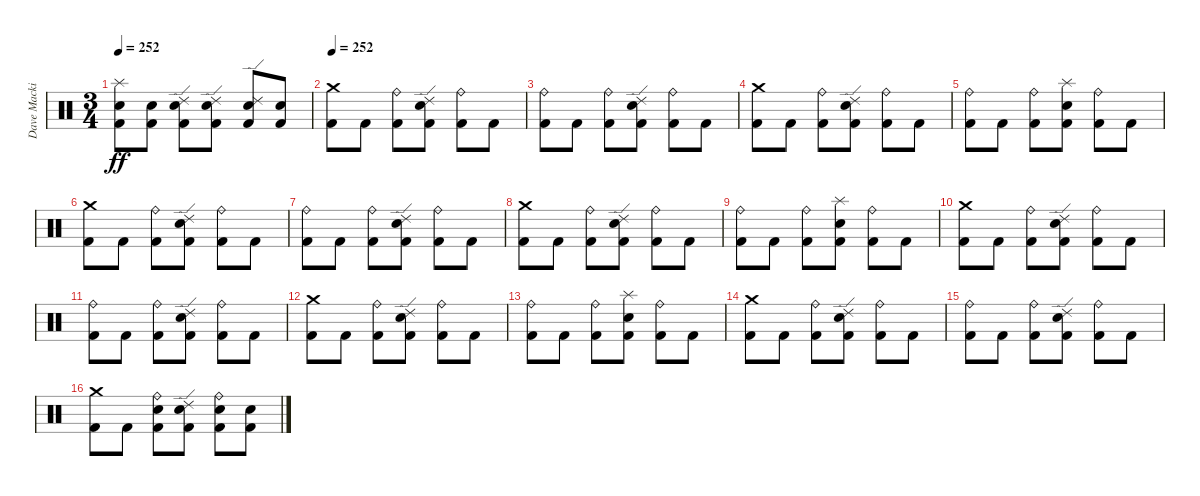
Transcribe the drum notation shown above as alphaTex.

\track ("Dave Mackintosh" "Dave Macki") {instrument percussion}
\staff {score}
\articulation defaults
\ts (3 4)
\tempo 252
\clef neutral
\ks c
("Splash (hit)" "Electric Snare (hit)" "Kick (hit) 2").8{dy ff} ("Electric Snare (hit)" "Kick (hit) 2").8 ("Ride (edge) 2" "Electric Snare (hit)" "Kick (hit) 2").8 ("Ride (edge) 2" "Electric Snare (hit)" "Kick (hit) 2").8 ("Ride (edge) 2" "Electric Snare (hit)" "Kick (hit) 2").8 ("Electric Snare (hit)" "Kick (hit) 2").8 |
\tempo 252
("Crash medium (hit)" "Kick (hit) 2").8 "Kick (hit) 2".8 ("Ride (bell)" "Kick (hit) 2").8 ("Ride (edge) 2" "Electric Snare (hit)" "Kick (hit) 2").8 ("Ride (bell)" "Kick (hit) 2").8 "Kick (hit) 2".8 |
("Ride (bell)" "Kick (hit) 2").8 "Kick (hit) 2".8 ("Ride (bell)" "Kick (hit) 2").8 ("Ride (edge) 2" "Electric Snare (hit)" "Kick (hit) 2").8 ("Ride (bell)" "Kick (hit) 2").8 "Kick (hit) 2".8 |
("Crash medium (hit)" "Kick (hit) 2").8 "Kick (hit) 2".8 ("Ride (bell)" "Kick (hit) 2").8 ("Ride (edge) 2" "Electric Snare (hit)" "Kick (hit) 2").8 ("Ride (bell)" "Kick (hit) 2").8 "Kick (hit) 2".8 |
("Ride (bell)" "Kick (hit) 2").8 "Kick (hit) 2".8 ("Ride (bell)" "Kick (hit) 2").8 ("Splash (hit)" "Electric Snare (hit)" "Kick (hit) 2").8 ("Ride (bell)" "Kick (hit) 2").8 "Kick (hit) 2".8 |
("Crash medium (hit)" "Kick (hit) 2").8 "Kick (hit) 2".8 ("Ride (bell)" "Kick (hit) 2").8 ("Ride (edge) 2" "Electric Snare (hit)" "Kick (hit) 2").8 ("Ride (bell)" "Kick (hit) 2").8 "Kick (hit) 2".8 |
("Ride (bell)" "Kick (hit) 2").8 "Kick (hit) 2".8 ("Ride (bell)" "Kick (hit) 2").8 ("Ride (edge) 2" "Electric Snare (hit)" "Kick (hit) 2").8 ("Ride (bell)" "Kick (hit) 2").8 "Kick (hit) 2".8 |
("Crash medium (hit)" "Kick (hit) 2").8 "Kick (hit) 2".8 ("Ride (bell)" "Kick (hit) 2").8 ("Ride (edge) 2" "Electric Snare (hit)" "Kick (hit) 2").8 ("Ride (bell)" "Kick (hit) 2").8 "Kick (hit) 2".8 |
("Ride (bell)" "Kick (hit) 2").8 "Kick (hit) 2".8 ("Ride (bell)" "Kick (hit) 2").8 ("Splash (hit)" "Electric Snare (hit)" "Kick (hit) 2").8 ("Ride (bell)" "Kick (hit) 2").8 "Kick (hit) 2".8 |
("Crash medium (hit)" "Kick (hit) 2").8 "Kick (hit) 2".8 ("Ride (bell)" "Kick (hit) 2").8 ("Ride (edge) 2" "Electric Snare (hit)" "Kick (hit) 2").8 ("Ride (bell)" "Kick (hit) 2").8 "Kick (hit) 2".8 |
("Ride (bell)" "Kick (hit) 2").8 "Kick (hit) 2".8 ("Ride (bell)" "Kick (hit) 2").8 ("Ride (edge) 2" "Electric Snare (hit)" "Kick (hit) 2").8 ("Ride (bell)" "Kick (hit) 2").8 "Kick (hit) 2".8 |
("Crash medium (hit)" "Kick (hit) 2").8 "Kick (hit) 2".8 ("Ride (bell)" "Kick (hit) 2").8 ("Ride (edge) 2" "Electric Snare (hit)" "Kick (hit) 2").8 ("Ride (bell)" "Kick (hit) 2").8 "Kick (hit) 2".8 |
("Ride (bell)" "Kick (hit) 2").8 "Kick (hit) 2".8 ("Ride (bell)" "Kick (hit) 2").8 ("Splash (hit)" "Electric Snare (hit)" "Kick (hit) 2").8 ("Ride (bell)" "Kick (hit) 2").8 "Kick (hit) 2".8 |
("Crash medium (hit)" "Kick (hit) 2").8 "Kick (hit) 2".8 ("Ride (bell)" "Kick (hit) 2").8 ("Ride (edge) 2" "Electric Snare (hit)" "Kick (hit) 2").8 ("Ride (bell)" "Kick (hit) 2").8 "Kick (hit) 2".8 |
("Ride (bell)" "Kick (hit) 2").8 "Kick (hit) 2".8 ("Ride (bell)" "Kick (hit) 2").8 ("Ride (edge) 2" "Electric Snare (hit)" "Kick (hit) 2").8 ("Ride (bell)" "Kick (hit) 2").8 "Kick (hit) 2".8 |
("Crash medium (hit)" "Kick (hit) 2").8 "Kick (hit) 2".8 ("Ride (bell)" "Electric Snare (hit)" "Kick (hit) 2").8 ("Ride (edge) 2" "Electric Snare (hit)" "Kick (hit) 2").8 ("Ride (bell)" "Electric Snare (hit)" "Kick (hit) 2").8 ("Electric Snare (hit)" "Kick (hit) 2").8
